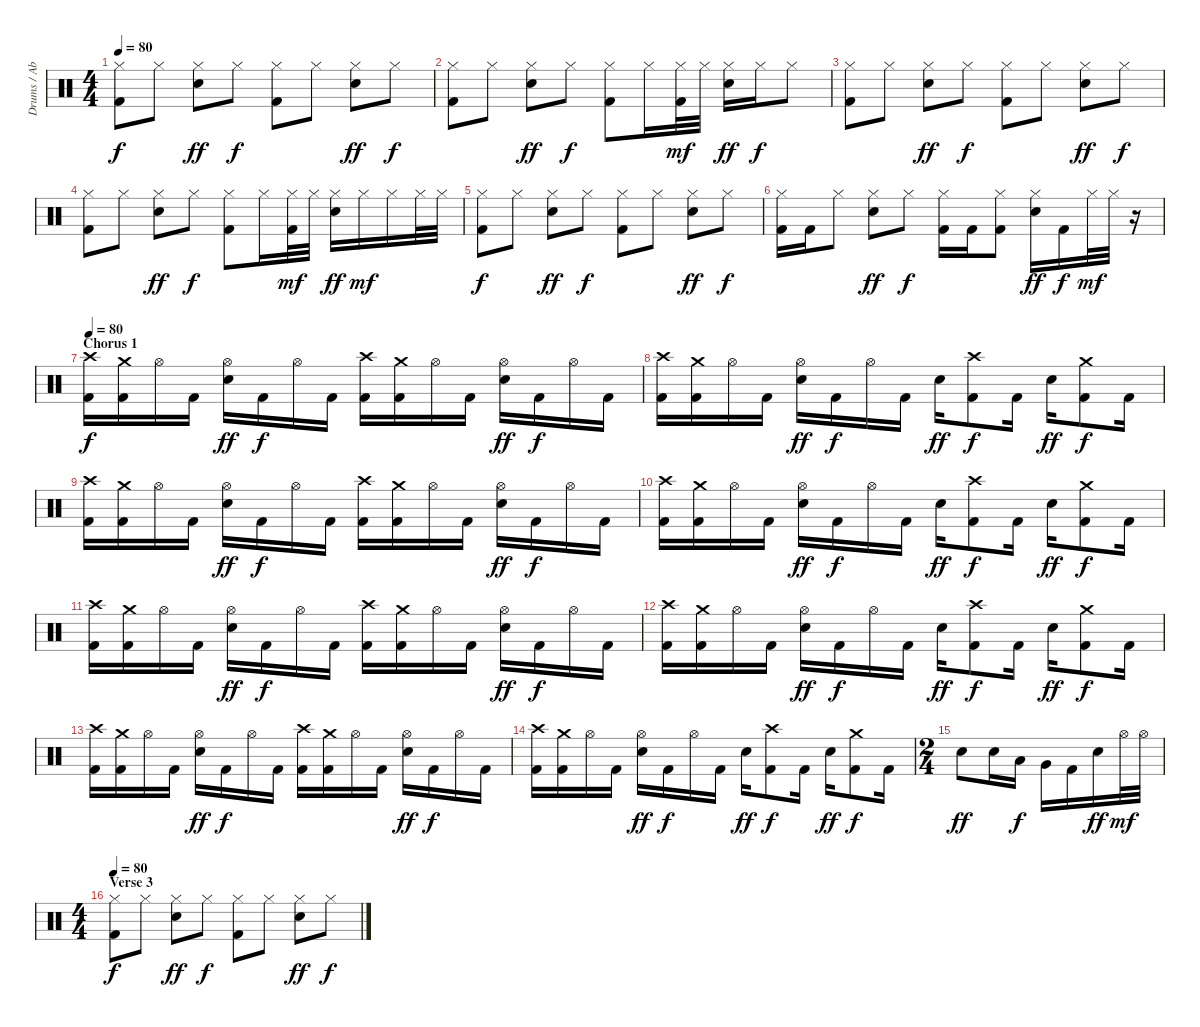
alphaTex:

\track ("Drums / Abe Cunningham" "Drums / Ab") {instrument percussion}
\staff {score}
\articulation defaults
\ts (4 4)
\tempo 80
\clef neutral
\ks c
("Hi-Hat (closed)" "Kick (hit) 2").8{dy f} "Hi-Hat (closed)".8 ("Hi-Hat (closed)" "Electric Snare (hit)").8{dy ff} "Hi-Hat (closed)".8{dy f} ("Hi-Hat (closed)" "Kick (hit) 2").8 "Hi-Hat (closed)".8 ("Hi-Hat (closed)" "Electric Snare (hit)").8{dy ff} "Hi-Hat (closed)".8{dy f} |
("Hi-Hat (closed)" "Kick (hit) 2").8 "Hi-Hat (closed)".8 ("Hi-Hat (closed)" "Electric Snare (hit)").8{dy ff} "Hi-Hat (closed)".8{dy f} ("Hi-Hat (closed)" "Kick (hit) 2").8 "Hi-Hat (closed)".16 ("Hi-Hat (closed)" "Kick (hit) 2").32{dy mf} "Hi-Hat (closed)".32 ("Hi-Hat (closed)" "Electric Snare (hit)").16{dy ff} "Hi-Hat (closed)".16{dy f} "Hi-Hat (closed)".8 |
("Hi-Hat (closed)" "Kick (hit) 2").8 "Hi-Hat (closed)".8 ("Hi-Hat (closed)" "Electric Snare (hit)").8{dy ff} "Hi-Hat (closed)".8{dy f} ("Hi-Hat (closed)" "Kick (hit) 2").8 "Hi-Hat (closed)".8 ("Hi-Hat (closed)" "Electric Snare (hit)").8{dy ff} "Hi-Hat (closed)".8{dy f} |
("Hi-Hat (closed)" "Kick (hit) 2").8 "Hi-Hat (closed)".8 ("Hi-Hat (closed)" "Electric Snare (hit)").8{dy ff} "Hi-Hat (closed)".8{dy f} ("Hi-Hat (closed)" "Kick (hit) 2").8 "Hi-Hat (closed)".16 ("Hi-Hat (closed)" "Kick (hit) 2").32{dy mf} "Hi-Hat (closed)".32 ("Hi-Hat (closed)" "Electric Snare (hit)").16{dy ff} "Hi-Hat (closed)".16{dy mf} "Hi-Hat (closed)".16 "Hi-Hat (closed)".32 "Hi-Hat (closed)".32 |
("Hi-Hat (closed)" "Kick (hit) 2").8{dy f} "Hi-Hat (closed)".8 ("Hi-Hat (closed)" "Electric Snare (hit)").8{dy ff} "Hi-Hat (closed)".8{dy f} ("Hi-Hat (closed)" "Kick (hit) 2").8 "Hi-Hat (closed)".8 ("Hi-Hat (closed)" "Electric Snare (hit)").8{dy ff} "Hi-Hat (closed)".8{dy f} |
("Hi-Hat (closed)" "Kick (hit) 2").16 "Kick (hit) 2".16 "Hi-Hat (closed)".8 ("Hi-Hat (closed)" "Electric Snare (hit)").8{dy ff} "Hi-Hat (closed)".8{dy f} ("Hi-Hat (closed)" "Kick (hit) 2").16 "Kick (hit) 2".16 ("Hi-Hat (closed)" "Kick (hit) 2").8 ("Hi-Hat (closed)" "Electric Snare (hit)").16{dy ff} "Kick (hit) 2".16{dy f} "Hi-Hat (closed)".32{dy mf} "Hi-Hat (closed)".32 r.16 |
\section ("" "Chorus 1")
\tempo 80
("Crash high (hit)" "Kick (hit) 2").16{dy f} ("Crash medium (hit)" "Kick (hit) 2").16 "Hi-Hat (open)".16 "Kick (hit) 2".16 ("Hi-Hat (open)" "Electric Snare (hit)").16{dy ff} "Kick (hit) 2".16{dy f} "Hi-Hat (open)".16 "Kick (hit) 2".16 ("Crash high (hit)" "Kick (hit) 2").16 ("Crash medium (hit)" "Kick (hit) 2").16 "Hi-Hat (open)".16 "Kick (hit) 2".16 ("Hi-Hat (open)" "Electric Snare (hit)").16{dy ff} "Kick (hit) 2".16{dy f} "Hi-Hat (open)".16 "Kick (hit) 2".16 |
("Crash high (hit)" "Kick (hit) 2").16 ("Crash medium (hit)" "Kick (hit) 2").16 "Hi-Hat (open)".16 "Kick (hit) 2".16 ("Hi-Hat (open)" "Electric Snare (hit)").16{dy ff} "Kick (hit) 2".16{dy f} "Hi-Hat (open)".16 "Kick (hit) 2".16 "Electric Snare (hit)".16{dy ff} ("Crash high (hit)" "Kick (hit) 2").8{dy f} "Kick (hit) 2".16 "Electric Snare (hit)".16{dy ff} ("Crash medium (hit)" "Kick (hit) 2").8{dy f} "Kick (hit) 2".16 |
("Crash high (hit)" "Kick (hit) 2").16 ("Crash medium (hit)" "Kick (hit) 2").16 "Hi-Hat (open)".16 "Kick (hit) 2".16 ("Hi-Hat (open)" "Electric Snare (hit)").16{dy ff} "Kick (hit) 2".16{dy f} "Hi-Hat (open)".16 "Kick (hit) 2".16 ("Crash high (hit)" "Kick (hit) 2").16 ("Crash medium (hit)" "Kick (hit) 2").16 "Hi-Hat (open)".16 "Kick (hit) 2".16 ("Hi-Hat (open)" "Electric Snare (hit)").16{dy ff} "Kick (hit) 2".16{dy f} "Hi-Hat (open)".16 "Kick (hit) 2".16 |
("Crash high (hit)" "Kick (hit) 2").16 ("Crash medium (hit)" "Kick (hit) 2").16 "Hi-Hat (open)".16 "Kick (hit) 2".16 ("Hi-Hat (open)" "Electric Snare (hit)").16{dy ff} "Kick (hit) 2".16{dy f} "Hi-Hat (open)".16 "Kick (hit) 2".16 "Electric Snare (hit)".16{dy ff} ("Crash high (hit)" "Kick (hit) 2").8{dy f} "Kick (hit) 2".16 "Electric Snare (hit)".16{dy ff} ("Crash medium (hit)" "Kick (hit) 2").8{dy f} "Kick (hit) 2".16 |
("Crash high (hit)" "Kick (hit) 2").16 ("Crash medium (hit)" "Kick (hit) 2").16 "Hi-Hat (open)".16 "Kick (hit) 2".16 ("Hi-Hat (open)" "Electric Snare (hit)").16{dy ff} "Kick (hit) 2".16{dy f} "Hi-Hat (open)".16 "Kick (hit) 2".16 ("Crash high (hit)" "Kick (hit) 2").16 ("Crash medium (hit)" "Kick (hit) 2").16 "Hi-Hat (open)".16 "Kick (hit) 2".16 ("Hi-Hat (open)" "Electric Snare (hit)").16{dy ff} "Kick (hit) 2".16{dy f} "Hi-Hat (open)".16 "Kick (hit) 2".16 |
("Crash high (hit)" "Kick (hit) 2").16 ("Crash medium (hit)" "Kick (hit) 2").16 "Hi-Hat (open)".16 "Kick (hit) 2".16 ("Hi-Hat (open)" "Electric Snare (hit)").16{dy ff} "Kick (hit) 2".16{dy f} "Hi-Hat (open)".16 "Kick (hit) 2".16 "Electric Snare (hit)".16{dy ff} ("Crash high (hit)" "Kick (hit) 2").8{dy f} "Kick (hit) 2".16 "Electric Snare (hit)".16{dy ff} ("Crash medium (hit)" "Kick (hit) 2").8{dy f} "Kick (hit) 2".16 |
("Crash high (hit)" "Kick (hit) 2").16 ("Crash medium (hit)" "Kick (hit) 2").16 "Hi-Hat (open)".16 "Kick (hit) 2".16 ("Hi-Hat (open)" "Electric Snare (hit)").16{dy ff} "Kick (hit) 2".16{dy f} "Hi-Hat (open)".16 "Kick (hit) 2".16 ("Crash high (hit)" "Kick (hit) 2").16 ("Crash medium (hit)" "Kick (hit) 2").16 "Hi-Hat (open)".16 "Kick (hit) 2".16 ("Hi-Hat (open)" "Electric Snare (hit)").16{dy ff} "Kick (hit) 2".16{dy f} "Hi-Hat (open)".16 "Kick (hit) 2".16 |
("Crash high (hit)" "Kick (hit) 2").16 ("Crash medium (hit)" "Kick (hit) 2").16 "Hi-Hat (open)".16 "Kick (hit) 2".16 ("Hi-Hat (open)" "Electric Snare (hit)").16{dy ff} "Kick (hit) 2".16{dy f} "Hi-Hat (open)".16 "Kick (hit) 2".16 "Electric Snare (hit)".16{dy ff} ("Crash high (hit)" "Kick (hit) 2").8{dy f} "Kick (hit) 2".16 "Electric Snare (hit)".16{dy ff} ("Crash medium (hit)" "Kick (hit) 2").8{dy f} "Kick (hit) 2".16 |
\ts (2 4)
"Electric Snare (hit)".8{dy ff} "Electric Snare (hit)".16 "Low Tom (hit)".16{dy f} "Very Low Tom (hit)".16 "Kick (hit) 2".16 "Electric Snare (hit)".16{dy ff} "Hi-Hat (open)".32{dy mf} "Hi-Hat (open)".32 |
\ts (4 4)
\section ("" "Verse 3")
\tempo 80
("Hi-Hat (closed)" "Kick (hit) 2").8{dy f} "Hi-Hat (closed)".8 ("Hi-Hat (closed)" "Electric Snare (hit)").8{dy ff} "Hi-Hat (closed)".8{dy f} ("Hi-Hat (closed)" "Kick (hit) 2").8 "Hi-Hat (closed)".8 ("Hi-Hat (closed)" "Electric Snare (hit)").8{dy ff} "Hi-Hat (closed)".8{dy f}
